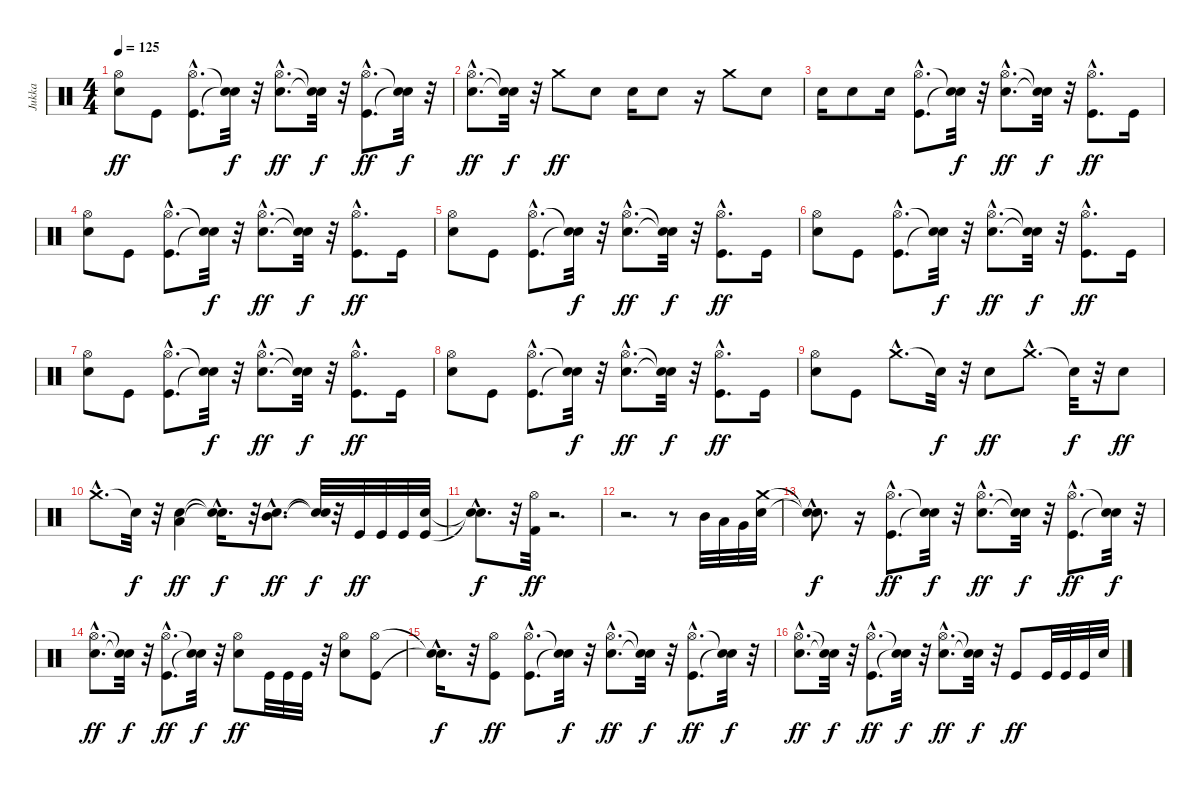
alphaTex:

\track ("Jukka" "Jukka") {instrument percussion}
\staff {score}
\articulation defaults
\ts (4 4)
\tempo 125
\clef neutral
\ks c
("Electric Snare (hit)" "Hi-Hat (open)").8{dy ff} "Kick (hit)".8 ("Kick (hit)"{hac} "Hi-Hat (open)"{hac}).8{d} ("Snare (hit)"{t} "Snare (hit)"{t}).32{dy f} r.32 ("Electric Snare (hit)"{hac} "Hi-Hat (open)"{hac}).8{d dy ff} ("Snare (hit)"{t} "Snare (hit)"{t}).32{dy f} r.32 ("Kick (hit)"{hac} "Hi-Hat (open)"{hac}).8{d dy ff} ("Snare (hit)"{t} "Snare (hit)"{t}).32{dy f} r.32 |
("Electric Snare (hit)"{hac} "Hi-Hat (open)"{hac}).8{d dy ff} ("Snare (hit)"{t} "Snare (hit)"{t}).32{dy f} r.32 "Crash medium (hit)".8{dy ff} "Electric Snare (hit)".8 "Electric Snare (hit)".16 "Electric Snare (hit)".8 r.16 "Crash medium (hit)".8 "Electric Snare (hit)".8 |
"Electric Snare (hit)".16 "Electric Snare (hit)".8 "Electric Snare (hit)".16 ("Kick (hit)"{hac} "Hi-Hat (open)"{hac}).8{d} ("Snare (hit)"{t} "Snare (hit)"{t}).32{dy f} r.32 ("Electric Snare (hit)"{hac} "Hi-Hat (open)"{hac}).8{d dy ff} ("Snare (hit)"{t} "Snare (hit)"{t}).32{dy f} r.32 ("Kick (hit)"{hac} "Hi-Hat (open)"{hac}).8{d dy ff} "Kick (hit)".16 |
("Electric Snare (hit)" "Hi-Hat (open)").8 "Kick (hit)".8 ("Kick (hit)"{hac} "Hi-Hat (open)"{hac}).8{d} ("Snare (hit)"{t} "Snare (hit)"{t}).32{dy f} r.32 ("Electric Snare (hit)"{hac} "Hi-Hat (open)"{hac}).8{d dy ff} ("Snare (hit)"{t} "Snare (hit)"{t}).32{dy f} r.32 ("Kick (hit)"{hac} "Hi-Hat (open)"{hac}).8{d dy ff} "Kick (hit)".16 |
("Electric Snare (hit)" "Hi-Hat (open)").8 "Kick (hit)".8 ("Kick (hit)"{hac} "Hi-Hat (open)"{hac}).8{d} ("Snare (hit)"{t} "Snare (hit)"{t}).32{dy f} r.32 ("Electric Snare (hit)"{hac} "Hi-Hat (open)"{hac}).8{d dy ff} ("Snare (hit)"{t} "Snare (hit)"{t}).32{dy f} r.32 ("Kick (hit)"{hac} "Hi-Hat (open)"{hac}).8{d dy ff} "Kick (hit)".16 |
("Electric Snare (hit)" "Hi-Hat (open)").8 "Kick (hit)".8 ("Kick (hit)"{hac} "Hi-Hat (open)"{hac}).8{d} ("Snare (hit)"{t} "Snare (hit)"{t}).32{dy f} r.32 ("Electric Snare (hit)"{hac} "Hi-Hat (open)"{hac}).8{d dy ff} ("Snare (hit)"{t} "Snare (hit)"{t}).32{dy f} r.32 ("Kick (hit)"{hac} "Hi-Hat (open)"{hac}).8{d dy ff} "Kick (hit)".16 |
("Electric Snare (hit)" "Hi-Hat (open)").8 "Kick (hit)".8 ("Kick (hit)"{hac} "Hi-Hat (open)"{hac}).8{d} ("Snare (hit)"{t} "Snare (hit)"{t}).32{dy f} r.32 ("Electric Snare (hit)"{hac} "Hi-Hat (open)"{hac}).8{d dy ff} ("Snare (hit)"{t} "Snare (hit)"{t}).32{dy f} r.32 ("Kick (hit)"{hac} "Hi-Hat (open)"{hac}).8{d dy ff} "Kick (hit)".16 |
("Electric Snare (hit)" "Hi-Hat (open)").8 "Kick (hit)".8 ("Kick (hit)"{hac} "Hi-Hat (open)"{hac}).8{d} ("Snare (hit)"{t} "Snare (hit)"{t}).32{dy f} r.32 ("Electric Snare (hit)"{hac} "Hi-Hat (open)"{hac}).8{d dy ff} ("Snare (hit)"{t} "Snare (hit)"{t}).32{dy f} r.32 ("Kick (hit)"{hac} "Hi-Hat (open)"{hac}).8{d dy ff} "Kick (hit)".16 |
("Electric Snare (hit)" "Hi-Hat (open)").8 "Kick (hit)".8 "Crash medium (hit)"{hac}.8{d} "Snare (hit)"{t}.32{dy f} r.32 "Snare (hit) 2".8{dy ff} "Crash medium (hit)"{hac}.8{d} "Snare (hit)"{t}.32{dy f} r.32 "Snare (hit) 2".8{dy ff} |
"Crash medium (hit)"{hac}.8{d} "Snare (hit)"{t}.32{dy f} r.32 ("Electric Snare (hit)" "Low Tom (hit)").4{dy ff} ("Snare (hit)"{hac t} "Snare (hit)"{hac t}).16{d dy f} r.32 ("Electric Snare (hit)"{hac} "Mid Tom (hit)"{hac}).8{d dy ff} ("Snare (hit)"{t} "Snare (hit)"{t}).32{dy f} r.32 "Kick (hit)".32{dy ff} "Kick (hit)".32 "Kick (hit)".32 ("Kick (hit)" "Electric Snare (hit)").32 |
("Snare (hit)"{hac t} "Snare (hit)"{hac t}).8{d dy f} r.32 ("Kick (hit) 2" "Hi-Hat (open)").32{dy ff} r.2{d} |
r.2{d} r.8 "Mid Tom (hit)".32 "Low Tom (hit)".32 "Very Low Tom (hit)".32 ("Electric Snare (hit)" "Crash medium (hit)").32 |
("Snare (hit)"{hac t} "Snare (hit)"{hac t}).8{d dy f} r.16 ("Kick (hit)"{hac} "Hi-Hat (open)"{hac}).8{d dy ff} ("Snare (hit)"{t} "Snare (hit)"{t}).32{dy f} r.32 ("Electric Snare (hit)"{hac} "Hi-Hat (open)"{hac}).8{d dy ff} ("Snare (hit)"{t} "Snare (hit)"{t}).32{dy f} r.32 ("Kick (hit)"{hac} "Hi-Hat (open)"{hac}).8{d dy ff} ("Snare (hit)"{t} "Snare (hit)"{t}).32{dy f} r.32 |
("Electric Snare (hit)"{hac} "Hi-Hat (open)"{hac}).8{d dy ff} ("Snare (hit)"{t} "Snare (hit)"{t}).32{dy f} r.32 ("Kick (hit)"{hac} "Hi-Hat (open)"{hac}).8{d dy ff} ("Snare (hit)"{t} "Snare (hit)"{t}).32{dy f} r.32 ("Electric Snare (hit)" "Hi-Hat (open)").8{dy ff} "Kick (hit)".32 "Kick (hit)".32 "Kick (hit)".32 r.32 ("Electric Snare (hit)" "Hi-Hat (open)").8 ("Kick (hit)" "Hi-Hat (open)").8 |
("Snare (hit)"{hac t} "Snare (hit)"{hac t}).16{d dy f} r.32 ("Kick (hit)" "Hi-Hat (open)").8{dy ff} ("Kick (hit)"{hac} "Hi-Hat (open)"{hac}).8{d} ("Snare (hit)"{t} "Snare (hit)"{t}).32{dy f} r.32 ("Electric Snare (hit)"{hac} "Hi-Hat (open)"{hac}).8{d dy ff} ("Snare (hit)"{t} "Snare (hit)"{t}).32{dy f} r.32 ("Kick (hit)"{hac} "Hi-Hat (open)"{hac}).8{d dy ff} ("Snare (hit)"{t} "Snare (hit)"{t}).32{dy f} r.32 |
("Electric Snare (hit)"{hac} "Hi-Hat (open)"{hac}).8{d dy ff} ("Snare (hit)"{t} "Snare (hit)"{t}).32{dy f} r.32 ("Kick (hit)"{hac} "Hi-Hat (open)"{hac}).8{d dy ff} ("Snare (hit)"{t} "Snare (hit)"{t}).32{dy f} r.32 ("Electric Snare (hit)"{hac} "Hi-Hat (open)"{hac}).8{d dy ff} ("Snare (hit)"{t} "Snare (hit)"{t}).32{dy f} r.32 "Kick (hit)".8{dy ff} "Kick (hit)".32 "Kick (hit)".32 "Kick (hit)".32 "Electric Snare (hit)".32
